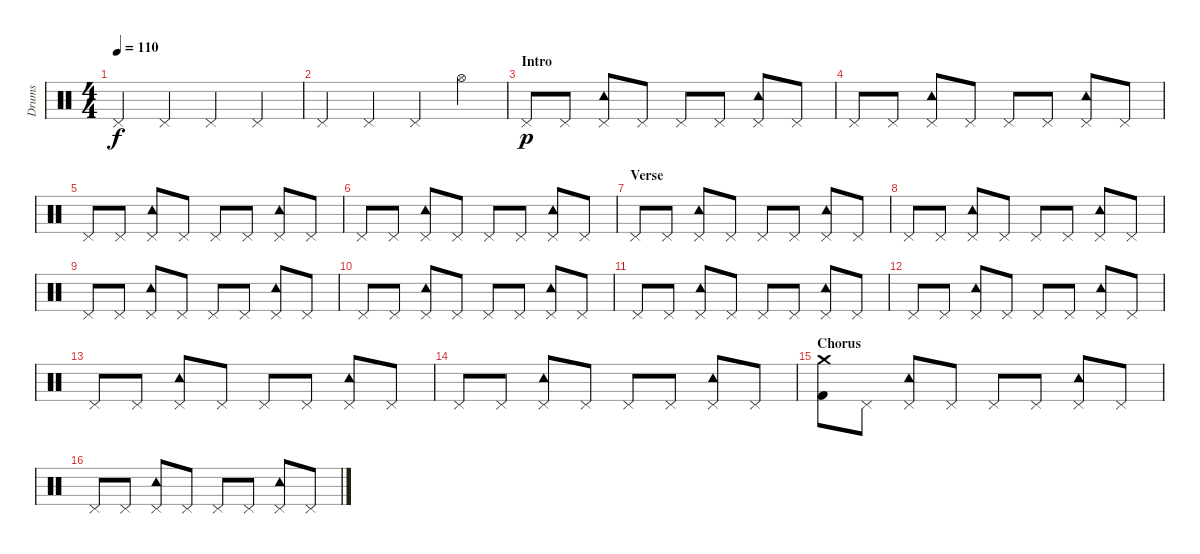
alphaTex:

\track ("Drums" "Drums") {instrument percussion}
\staff {score}
\articulation defaults
\ts (4 4)
\tempo 110
\clef neutral
\ks c "Pedal Hi-Hat (hit)".4{dy f} "Pedal Hi-Hat (hit)".4 "Pedal Hi-Hat (hit)".4 "Pedal Hi-Hat (hit)".4
|
"Pedal Hi-Hat (hit)".4 "Pedal Hi-Hat (hit)".4 "Pedal Hi-Hat (hit)".4 "Hi-Hat (open)".4 |
\section ("" "Intro")
"Pedal Hi-Hat (hit)".8{dy p} "Pedal Hi-Hat (hit)".8 ("Pedal Hi-Hat (hit)" "Tambourine (hit)").8 "Pedal Hi-Hat (hit)".8 "Pedal Hi-Hat (hit)".8 "Pedal Hi-Hat (hit)".8 ("Pedal Hi-Hat (hit)" "Tambourine (hit)").8 "Pedal Hi-Hat (hit)".8 |
"Pedal Hi-Hat (hit)".8 "Pedal Hi-Hat (hit)".8 ("Pedal Hi-Hat (hit)" "Tambourine (hit)").8 "Pedal Hi-Hat (hit)".8 "Pedal Hi-Hat (hit)".8 "Pedal Hi-Hat (hit)".8 ("Pedal Hi-Hat (hit)" "Tambourine (hit)").8 "Pedal Hi-Hat (hit)".8 |
"Pedal Hi-Hat (hit)".8 "Pedal Hi-Hat (hit)".8 ("Pedal Hi-Hat (hit)" "Tambourine (hit)").8 "Pedal Hi-Hat (hit)".8 "Pedal Hi-Hat (hit)".8 "Pedal Hi-Hat (hit)".8 ("Pedal Hi-Hat (hit)" "Tambourine (hit)").8 "Pedal Hi-Hat (hit)".8 |
"Pedal Hi-Hat (hit)".8 "Pedal Hi-Hat (hit)".8 ("Pedal Hi-Hat (hit)" "Tambourine (hit)").8 "Pedal Hi-Hat (hit)".8 "Pedal Hi-Hat (hit)".8 "Pedal Hi-Hat (hit)".8 ("Pedal Hi-Hat (hit)" "Tambourine (hit)").8 "Pedal Hi-Hat (hit)".8 |
\section ("" "Verse")
"Pedal Hi-Hat (hit)".8 "Pedal Hi-Hat (hit)".8 ("Pedal Hi-Hat (hit)" "Tambourine (hit)").8 "Pedal Hi-Hat (hit)".8 "Pedal Hi-Hat (hit)".8 "Pedal Hi-Hat (hit)".8 ("Pedal Hi-Hat (hit)" "Tambourine (hit)").8 "Pedal Hi-Hat (hit)".8 |
"Pedal Hi-Hat (hit)".8 "Pedal Hi-Hat (hit)".8 ("Pedal Hi-Hat (hit)" "Tambourine (hit)").8 "Pedal Hi-Hat (hit)".8 "Pedal Hi-Hat (hit)".8 "Pedal Hi-Hat (hit)".8 ("Pedal Hi-Hat (hit)" "Tambourine (hit)").8 "Pedal Hi-Hat (hit)".8 |
"Pedal Hi-Hat (hit)".8 "Pedal Hi-Hat (hit)".8 ("Pedal Hi-Hat (hit)" "Tambourine (hit)").8 "Pedal Hi-Hat (hit)".8 "Pedal Hi-Hat (hit)".8 "Pedal Hi-Hat (hit)".8 ("Pedal Hi-Hat (hit)" "Tambourine (hit)").8 "Pedal Hi-Hat (hit)".8 |
"Pedal Hi-Hat (hit)".8 "Pedal Hi-Hat (hit)".8 ("Pedal Hi-Hat (hit)" "Tambourine (hit)").8 "Pedal Hi-Hat (hit)".8 "Pedal Hi-Hat (hit)".8 "Pedal Hi-Hat (hit)".8 ("Pedal Hi-Hat (hit)" "Tambourine (hit)").8 "Pedal Hi-Hat (hit)".8 |
"Pedal Hi-Hat (hit)".8 "Pedal Hi-Hat (hit)".8 ("Pedal Hi-Hat (hit)" "Tambourine (hit)").8 "Pedal Hi-Hat (hit)".8 "Pedal Hi-Hat (hit)".8 "Pedal Hi-Hat (hit)".8 ("Pedal Hi-Hat (hit)" "Tambourine (hit)").8 "Pedal Hi-Hat (hit)".8 |
"Pedal Hi-Hat (hit)".8 "Pedal Hi-Hat (hit)".8 ("Pedal Hi-Hat (hit)" "Tambourine (hit)").8 "Pedal Hi-Hat (hit)".8 "Pedal Hi-Hat (hit)".8 "Pedal Hi-Hat (hit)".8 ("Pedal Hi-Hat (hit)" "Tambourine (hit)").8 "Pedal Hi-Hat (hit)".8 |
"Pedal Hi-Hat (hit)".8 "Pedal Hi-Hat (hit)".8 ("Pedal Hi-Hat (hit)" "Tambourine (hit)").8 "Pedal Hi-Hat (hit)".8 "Pedal Hi-Hat (hit)".8 "Pedal Hi-Hat (hit)".8 ("Pedal Hi-Hat (hit)" "Tambourine (hit)").8 "Pedal Hi-Hat (hit)".8 |
"Pedal Hi-Hat (hit)".8 "Pedal Hi-Hat (hit)".8 ("Pedal Hi-Hat (hit)" "Tambourine (hit)").8 "Pedal Hi-Hat (hit)".8 "Pedal Hi-Hat (hit)".8 "Pedal Hi-Hat (hit)".8 ("Pedal Hi-Hat (hit)" "Tambourine (hit)").8 "Pedal Hi-Hat (hit)".8 |
\section ("" "Chorus")
("Crash medium (hit)" "Kick (hit) 2").8 "Pedal Hi-Hat (hit)".8 ("Pedal Hi-Hat (hit)" "Tambourine (hit)").8 "Pedal Hi-Hat (hit)".8 "Pedal Hi-Hat (hit)".8 "Pedal Hi-Hat (hit)".8 ("Pedal Hi-Hat (hit)" "Tambourine (hit)").8 "Pedal Hi-Hat (hit)".8 |
"Pedal Hi-Hat (hit)".8 "Pedal Hi-Hat (hit)".8 ("Pedal Hi-Hat (hit)" "Tambourine (hit)").8 "Pedal Hi-Hat (hit)".8 "Pedal Hi-Hat (hit)".8 "Pedal Hi-Hat (hit)".8 ("Pedal Hi-Hat (hit)" "Tambourine (hit)").8 "Pedal Hi-Hat (hit)".8
